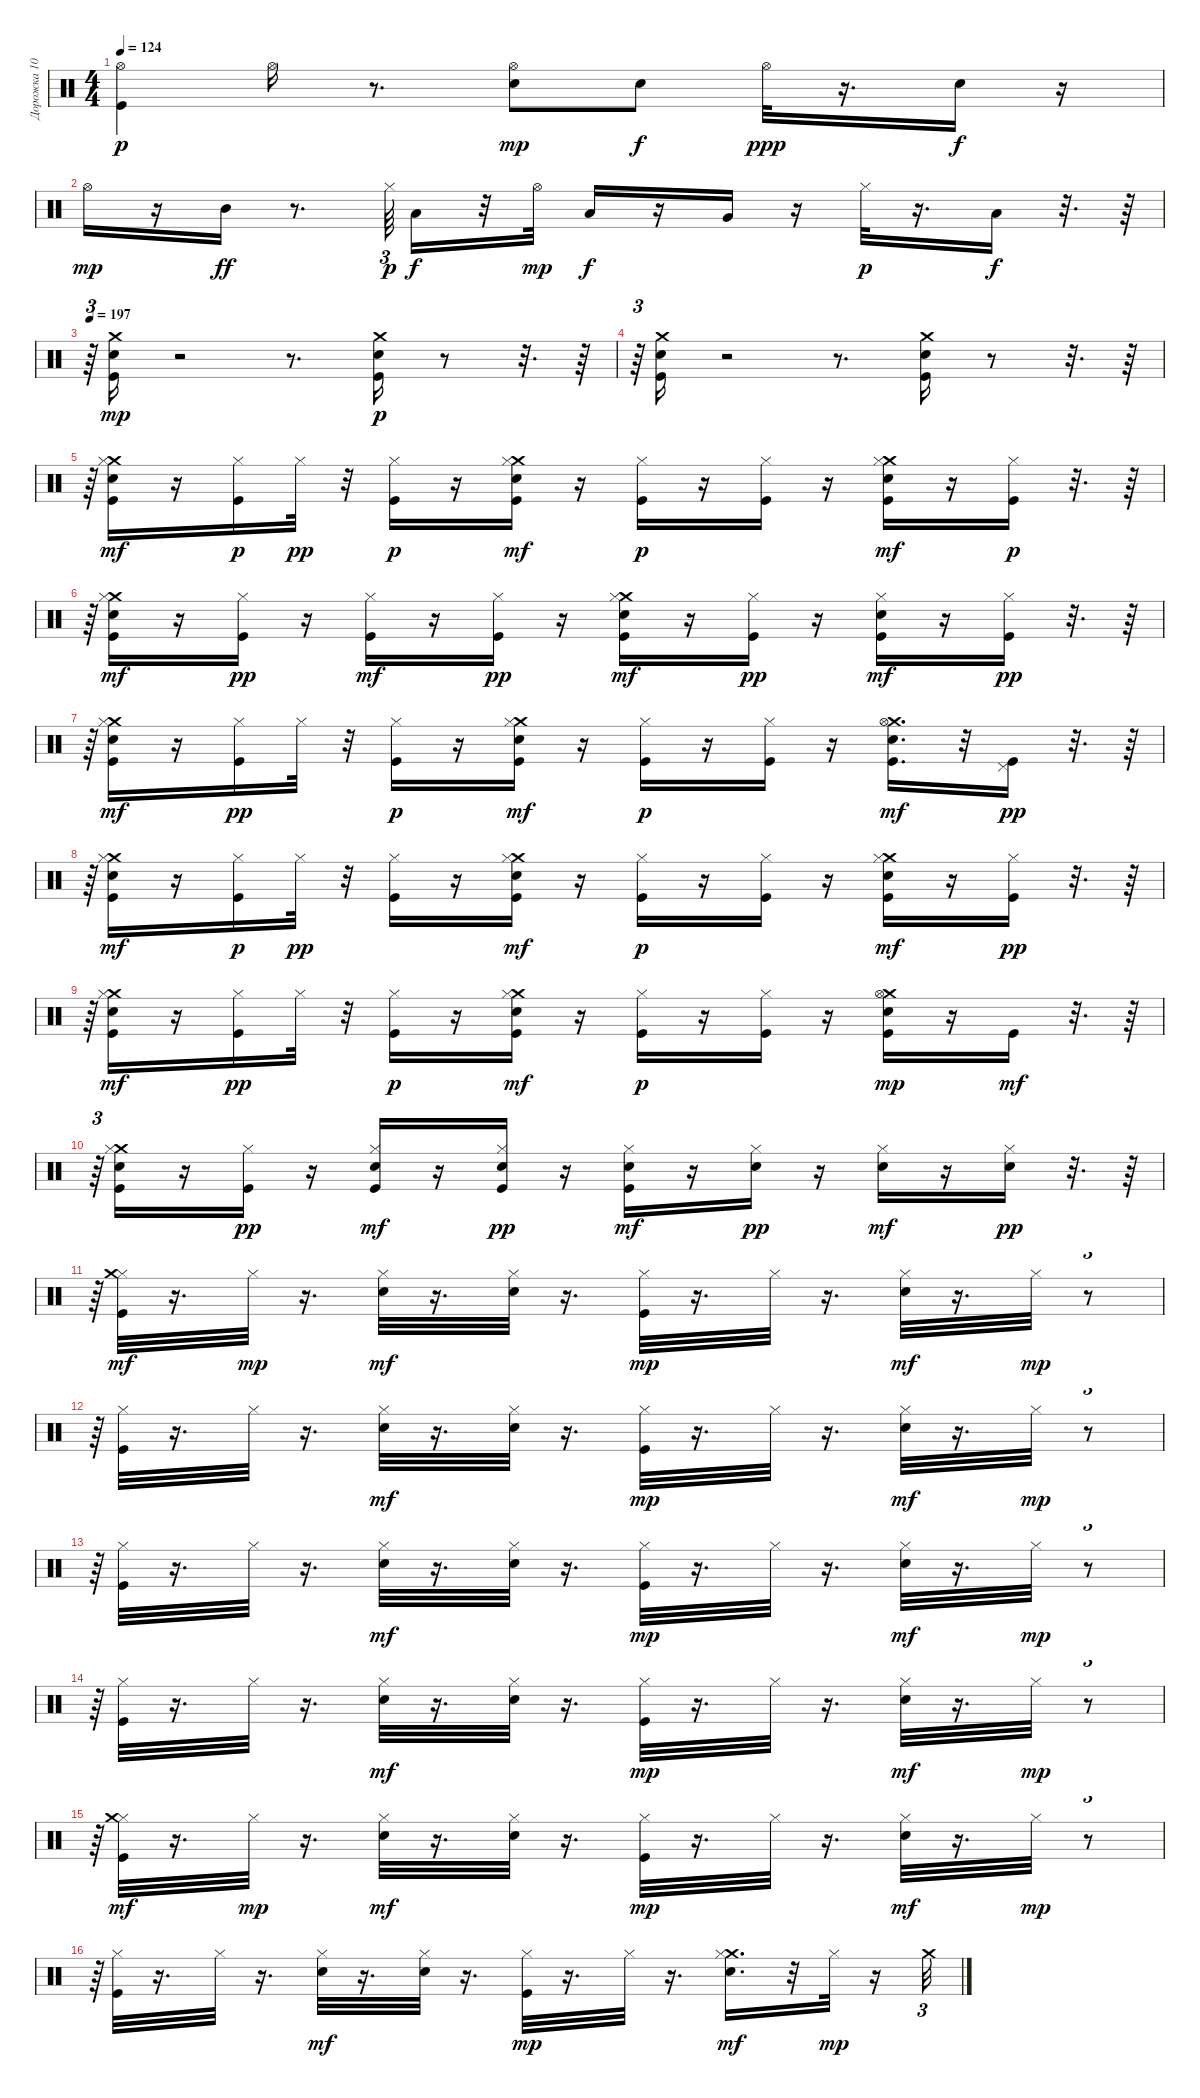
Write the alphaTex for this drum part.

\track ("Дорожка 10" "Дорожка 10") {instrument percussion}
\staff {score}
\articulation defaults
\ts (4 4)
\tempo 124
\clef neutral
\ks c
("Kick (hit)" "Hi-Hat (open)").4{dy p} "Hi-Hat (open)".16 r.8{d} ("Electric Snare (hit)" "Hi-Hat (open)").8{dy mp} "Electric Snare (hit)".8{dy f} "Hi-Hat (open)".32{dy ppp} r.16{d} "Electric Snare (hit)".16{dy f} r.16 |
"Hi-Hat (open)".16{dy mp} r.16 "Mid Tom (hit)".16{dy ff} r.8{d} "Hi-Hat (closed)".64{tu (3 2) dy p} "Low Tom (hit)".16{dy f} r.32 "Hi-Hat (open)".32{dy mp} "Low Tom (hit)".16{dy f} r.16 "Very Low Tom (hit)".16 r.16 "Hi-Hat (closed)".32{dy p} r.16{d} "Low Floor Tom (hit)".16{dy f} r.32{d} r.64 |
\tempo 197
r.64{tu (3 2)} ("Snare (hit) 2" "Crash medium (hit)" "Kick (hit)").16{dy mp} r.2 r.8{d} ("Crash medium (hit)" "Snare (hit) 2" "Kick (hit)").16{dy p} r.8 r.32{d} r.64 |
r.64{tu (3 2)} ("Crash medium (hit)" "Snare (hit) 2" "Kick (hit)").16 r.2 r.8{d} ("Crash medium (hit)" "Snare (hit) 2" "Kick (hit)").16 r.8 r.32{d} r.64 |
r.64{tu (3 2)} ("Crash medium (hit)" "Snare (hit) 2" "Kick (hit)" "Hi-Hat (closed)").16{dy mf} r.16 ("Kick (hit)" "Hi-Hat (closed)").16{dy p} "Hi-Hat (closed)".32{dy pp} r.32 ("Kick (hit)" "Hi-Hat (closed)").16{dy p} r.16 ("Crash medium (hit)" "Snare (hit) 2" "Kick (hit)" "Hi-Hat (closed)").16{dy mf} r.16 ("Kick (hit)" "Hi-Hat (closed)").16{dy p} r.16 ("Kick (hit)" "Hi-Hat (closed)").16 r.16 ("Crash medium (hit)" "Snare (hit) 2" "Kick (hit)" "Hi-Hat (closed)").16{dy mf} r.16 ("Kick (hit)" "Hi-Hat (closed)").16{dy p} r.32{d} r.64 |
r.64{tu (3 2)} ("Crash medium (hit)" "Snare (hit) 2" "Kick (hit)" "Hi-Hat (closed)").16{dy mf} r.16 ("Kick (hit)" "Hi-Hat (closed)").16{dy pp} r.16 ("Kick (hit)" "Hi-Hat (closed)").16{dy mf} r.16 ("Kick (hit)" "Hi-Hat (closed)").16{dy pp} r.16 ("Snare (hit) 2" "Crash medium (hit)" "Kick (hit)" "Hi-Hat (closed)").16{dy mf} r.16 ("Kick (hit)" "Hi-Hat (closed)").16{dy pp} r.16 ("Snare (hit) 2" "Kick (hit)" "Hi-Hat (closed)").16{dy mf} r.16 ("Kick (hit)" "Hi-Hat (closed)").16{dy pp} r.32{d} r.64 |
r.64{tu (3 2)} ("Crash medium (hit)" "Snare (hit) 2" "Kick (hit)" "Hi-Hat (closed)").16{dy mf} r.16 ("Kick (hit)" "Hi-Hat (closed)").16{dy pp} "Hi-Hat (closed)".32 r.32 ("Kick (hit)" "Hi-Hat (closed)").16{dy p} r.16 ("Snare (hit) 2" "Crash medium (hit)" "Kick (hit)" "Hi-Hat (closed)").16{dy mf} r.16 ("Kick (hit)" "Hi-Hat (closed)").16{dy p} r.16 ("Kick (hit)" "Hi-Hat (closed)").16 r.16 ("Crash medium (hit)" "Snare (hit) 2" "Kick (hit)" "Hi-Hat (open)").16{d dy mf} r.32 ("Kick (hit)" "Pedal Hi-Hat (hit)").16{dy pp} r.32{d} r.64 |
r.64{tu (3 2)} ("Crash medium (hit)" "Snare (hit) 2" "Kick (hit)" "Hi-Hat (closed)").16{dy mf} r.16 ("Kick (hit)" "Hi-Hat (closed)").16{dy p} "Hi-Hat (closed)".32{dy pp} r.32 ("Kick (hit)" "Hi-Hat (closed)").16 r.16 ("Snare (hit) 2" "Crash medium (hit)" "Kick (hit)" "Hi-Hat (closed)").16{dy mf} r.16 ("Kick (hit)" "Hi-Hat (closed)").16{dy p} r.16 ("Kick (hit)" "Hi-Hat (closed)").16 r.16 ("Crash medium (hit)" "Snare (hit) 2" "Kick (hit)" "Hi-Hat (closed)").16{dy mf} r.16 ("Kick (hit)" "Hi-Hat (closed)").16{dy pp} r.32{d} r.64 |
r.64{tu (3 2)} ("Crash medium (hit)" "Snare (hit) 2" "Kick (hit)" "Hi-Hat (closed)").16{dy mf} r.16 ("Kick (hit)" "Hi-Hat (closed)").16{dy pp} "Hi-Hat (closed)".32 r.32 ("Kick (hit)" "Hi-Hat (closed)").16{dy p} r.16 ("Snare (hit) 2" "Crash medium (hit)" "Kick (hit)" "Hi-Hat (closed)").16{dy mf} r.16 ("Kick (hit)" "Hi-Hat (closed)").16{dy p} r.16 ("Kick (hit)" "Hi-Hat (closed)").16 r.16 ("Crash medium (hit)" "Snare (hit) 2" "Kick (hit)" "Hi-Hat (open)").16{dy mp} r.16 "Kick (hit)".16{dy mf} r.32{d} r.64 |
r.64{tu (3 2)} ("Crash medium (hit)" "Snare (hit) 2" "Kick (hit)" "Hi-Hat (closed)").16 r.16 ("Kick (hit)" "Hi-Hat (closed)").16{dy pp} r.16 ("Snare (hit) 2" "Kick (hit)" "Hi-Hat (closed)").16{dy mf} r.16 ("Snare (hit) 2" "Kick (hit)" "Hi-Hat (closed)").16{dy pp} r.16 ("Snare (hit) 2" "Kick (hit)" "Hi-Hat (closed)").16{dy mf} r.16 ("Snare (hit) 2" "Hi-Hat (closed)").16{dy pp} r.16 ("Snare (hit) 2" "Hi-Hat (closed)").16{dy mf} r.16 ("Snare (hit) 2" "Hi-Hat (closed)").16{dy pp} r.32{d} r.64 |
r.64{tu (3 2)} ("Hi-Hat (closed)" "Kick (hit)" "Crash medium (hit)").32{dy mf} r.16{d} "Hi-Hat (closed)".32{dy mp} r.16{d} ("Hi-Hat (closed)" "Electric Snare (hit)").32{dy mf} r.16{d} ("Hi-Hat (closed)" "Electric Snare (hit)").32 r.16{d} ("Hi-Hat (closed)" "Kick (hit)").32{dy mp} r.16{d} "Hi-Hat (closed)".32 r.16{d} ("Hi-Hat (closed)" "Electric Snare (hit)").32{dy mf} r.16{d} "Hi-Hat (closed)".32{dy mp} r.8{tu (3 2)} |
r.64{tu (3 2)} ("Hi-Hat (closed)" "Kick (hit)").32 r.16{d} "Hi-Hat (closed)".32 r.16{d} ("Hi-Hat (closed)" "Electric Snare (hit)").32{dy mf} r.16{d} ("Hi-Hat (closed)" "Electric Snare (hit)").32 r.16{d} ("Hi-Hat (closed)" "Kick (hit)").32{dy mp} r.16{d} "Hi-Hat (closed)".32 r.16{d} ("Hi-Hat (closed)" "Electric Snare (hit)").32{dy mf} r.16{d} "Hi-Hat (closed)".32{dy mp} r.8{tu (3 2)} |
r.64{tu (3 2)} ("Hi-Hat (closed)" "Kick (hit)").32 r.16{d} "Hi-Hat (closed)".32 r.16{d} ("Hi-Hat (closed)" "Electric Snare (hit)").32{dy mf} r.16{d} ("Hi-Hat (closed)" "Electric Snare (hit)").32 r.16{d} ("Hi-Hat (closed)" "Kick (hit)").32{dy mp} r.16{d} "Hi-Hat (closed)".32 r.16{d} ("Hi-Hat (closed)" "Electric Snare (hit)").32{dy mf} r.16{d} "Hi-Hat (closed)".32{dy mp} r.8{tu (3 2)} |
r.64{tu (3 2)} ("Hi-Hat (closed)" "Kick (hit)").32 r.16{d} "Hi-Hat (closed)".32 r.16{d} ("Hi-Hat (closed)" "Electric Snare (hit)").32{dy mf} r.16{d} ("Hi-Hat (closed)" "Electric Snare (hit)").32 r.16{d} ("Hi-Hat (closed)" "Kick (hit)").32{dy mp} r.16{d} "Hi-Hat (closed)".32 r.16{d} ("Hi-Hat (closed)" "Electric Snare (hit)").32{dy mf} r.16{d} "Hi-Hat (closed)".32{dy mp} r.8{tu (3 2)} |
r.64{tu (3 2)} ("Hi-Hat (closed)" "Kick (hit)" "Crash medium (hit)").32{dy mf} r.16{d} "Hi-Hat (closed)".32{dy mp} r.16{d} ("Hi-Hat (closed)" "Electric Snare (hit)").32{dy mf} r.16{d} ("Hi-Hat (closed)" "Electric Snare (hit)").32 r.16{d} ("Hi-Hat (closed)" "Kick (hit)").32{dy mp} r.16{d} "Hi-Hat (closed)".32 r.16{d} ("Hi-Hat (closed)" "Electric Snare (hit)").32{dy mf} r.16{d} "Hi-Hat (closed)".32{dy mp} r.8{tu (3 2)} |
r.64{tu (3 2)} ("Hi-Hat (closed)" "Kick (hit)").32 r.16{d} "Hi-Hat (closed)".32 r.16{d} ("Hi-Hat (closed)" "Electric Snare (hit)").32{dy mf} r.16{d} ("Hi-Hat (closed)" "Electric Snare (hit)").32 r.16{d} ("Hi-Hat (closed)" "Kick (hit)").32{dy mp} r.16{d} "Hi-Hat (closed)".32 r.16{d} ("Crash medium (hit)" "Hi-Hat (closed)" "Electric Snare (hit)").16{d dy mf} r.32 "Hi-Hat (closed)".32{dy mp} r.16 "Crash medium (hit)".32{tu (3 2)}
